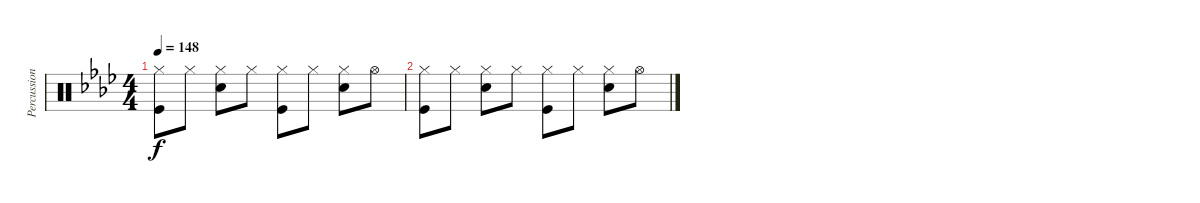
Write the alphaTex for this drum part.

\track ("Percussion" "Percussion") {instrument percussion}
\staff {score}
\articulation defaults
\ts (4 4)
\tempo 148
\clef neutral
\ks ab
("Hi-Hat (closed)" "Kick (hit)").8{dy f} "Hi-Hat (closed)".8 ("Hi-Hat (closed)" "Snare (hit) 2").8 "Hi-Hat (closed)".8 ("Hi-Hat (closed)" "Kick (hit)").8 "Hi-Hat (closed)".8 ("Hi-Hat (closed)" "Snare (hit) 2").8 "Hi-Hat (open)".8 |
("Hi-Hat (closed)" "Kick (hit)").8 "Hi-Hat (closed)".8 ("Hi-Hat (closed)" "Snare (hit) 2").8 "Hi-Hat (closed)".8 ("Hi-Hat (closed)" "Kick (hit)").8 "Hi-Hat (closed)".8 ("Hi-Hat (closed)" "Snare (hit) 2").8 "Hi-Hat (open)".8
